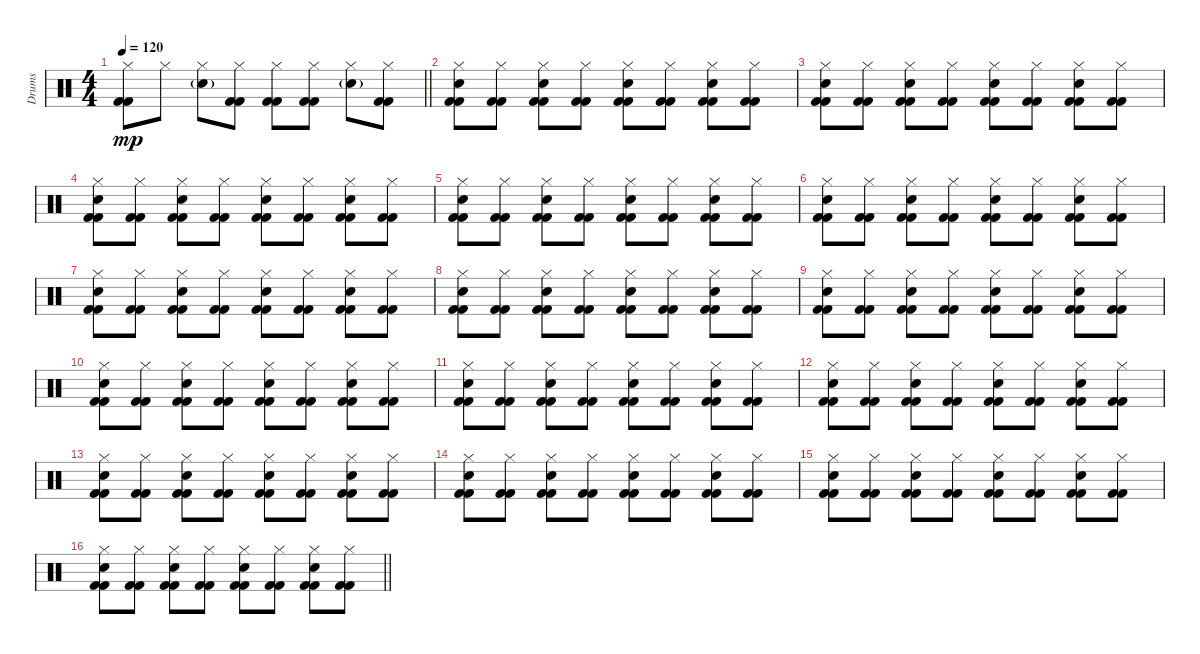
\track ("Drums" "Drums") {instrument percussion}
\staff {score}
\articulation defaults
\ts (4 4)
\tempo 120
\clef neutral
\barLineRight lightlight
\ks c
("Hi-Hat (closed)" "Kick (hit) 2" "Kick (hit) 2").8{dy mp} "Hi-Hat (closed)".8 ("Hi-Hat (closed)" "Snare (hit) 2"{g}).8 ("Hi-Hat (closed)" "Kick (hit) 2" "Kick (hit) 2").8 ("Hi-Hat (closed)" "Kick (hit) 2" "Kick (hit) 2").8 ("Hi-Hat (closed)" "Kick (hit) 2" "Kick (hit) 2").8 ("Hi-Hat (closed)" "Snare (hit) 2"{g}).8 ("Hi-Hat (closed)" "Kick (hit) 2" "Kick (hit) 2").8 |
("Hi-Hat (closed)" "Hand Clap (hit)" "Kick (hit) 2" "Kick (hit) 2").8 ("Hi-Hat (closed)" "Kick (hit) 2" "Kick (hit) 2").8 ("Hi-Hat (closed)" "Hand Clap (hit)" "Kick (hit) 2" "Kick (hit) 2").8 ("Hi-Hat (closed)" "Kick (hit) 2" "Kick (hit) 2").8 ("Hi-Hat (closed)" "Hand Clap (hit)" "Kick (hit) 2" "Kick (hit) 2").8 ("Hi-Hat (closed)" "Kick (hit) 2" "Kick (hit) 2").8 ("Hi-Hat (closed)" "Hand Clap (hit)" "Kick (hit) 2" "Kick (hit) 2").8 ("Hi-Hat (closed)" "Kick (hit) 2" "Kick (hit) 2").8 |
("Hi-Hat (closed)" "Hand Clap (hit)" "Kick (hit) 2" "Kick (hit) 2").8 ("Hi-Hat (closed)" "Kick (hit) 2" "Kick (hit) 2").8 ("Hi-Hat (closed)" "Hand Clap (hit)" "Kick (hit) 2" "Kick (hit) 2").8 ("Hi-Hat (closed)" "Kick (hit) 2" "Kick (hit) 2").8 ("Hi-Hat (closed)" "Hand Clap (hit)" "Kick (hit) 2" "Kick (hit) 2").8 ("Hi-Hat (closed)" "Kick (hit) 2" "Kick (hit) 2").8 ("Hi-Hat (closed)" "Hand Clap (hit)" "Kick (hit) 2" "Kick (hit) 2").8 ("Hi-Hat (closed)" "Kick (hit) 2" "Kick (hit) 2").8 |
("Hi-Hat (closed)" "Hand Clap (hit)" "Kick (hit) 2" "Kick (hit) 2").8 ("Hi-Hat (closed)" "Kick (hit) 2" "Kick (hit) 2").8 ("Hi-Hat (closed)" "Hand Clap (hit)" "Kick (hit) 2" "Kick (hit) 2").8 ("Hi-Hat (closed)" "Kick (hit) 2" "Kick (hit) 2").8 ("Hi-Hat (closed)" "Hand Clap (hit)" "Kick (hit) 2" "Kick (hit) 2").8 ("Hi-Hat (closed)" "Kick (hit) 2" "Kick (hit) 2").8 ("Hi-Hat (closed)" "Hand Clap (hit)" "Kick (hit) 2" "Kick (hit) 2").8 ("Hi-Hat (closed)" "Kick (hit) 2" "Kick (hit) 2").8 |
("Hi-Hat (closed)" "Hand Clap (hit)" "Kick (hit) 2" "Kick (hit) 2").8 ("Hi-Hat (closed)" "Kick (hit) 2" "Kick (hit) 2").8 ("Hi-Hat (closed)" "Hand Clap (hit)" "Kick (hit) 2" "Kick (hit) 2").8 ("Hi-Hat (closed)" "Kick (hit) 2" "Kick (hit) 2").8 ("Hi-Hat (closed)" "Hand Clap (hit)" "Kick (hit) 2" "Kick (hit) 2").8 ("Hi-Hat (closed)" "Kick (hit) 2" "Kick (hit) 2").8 ("Hi-Hat (closed)" "Hand Clap (hit)" "Kick (hit) 2" "Kick (hit) 2").8 ("Hi-Hat (closed)" "Kick (hit) 2" "Kick (hit) 2").8 |
("Hi-Hat (closed)" "Hand Clap (hit)" "Kick (hit) 2" "Kick (hit) 2").8 ("Hi-Hat (closed)" "Kick (hit) 2" "Kick (hit) 2").8 ("Hi-Hat (closed)" "Hand Clap (hit)" "Kick (hit) 2" "Kick (hit) 2").8 ("Hi-Hat (closed)" "Kick (hit) 2" "Kick (hit) 2").8 ("Hi-Hat (closed)" "Hand Clap (hit)" "Kick (hit) 2" "Kick (hit) 2").8 ("Hi-Hat (closed)" "Kick (hit) 2" "Kick (hit) 2").8 ("Hi-Hat (closed)" "Hand Clap (hit)" "Kick (hit) 2" "Kick (hit) 2").8 ("Hi-Hat (closed)" "Kick (hit) 2" "Kick (hit) 2").8 |
("Hi-Hat (closed)" "Hand Clap (hit)" "Kick (hit) 2" "Kick (hit) 2").8 ("Hi-Hat (closed)" "Kick (hit) 2" "Kick (hit) 2").8 ("Hi-Hat (closed)" "Hand Clap (hit)" "Kick (hit) 2" "Kick (hit) 2").8 ("Hi-Hat (closed)" "Kick (hit) 2" "Kick (hit) 2").8 ("Hi-Hat (closed)" "Hand Clap (hit)" "Kick (hit) 2" "Kick (hit) 2").8 ("Hi-Hat (closed)" "Kick (hit) 2" "Kick (hit) 2").8 ("Hi-Hat (closed)" "Hand Clap (hit)" "Kick (hit) 2" "Kick (hit) 2").8 ("Hi-Hat (closed)" "Kick (hit) 2" "Kick (hit) 2").8 |
("Hi-Hat (closed)" "Hand Clap (hit)" "Kick (hit) 2" "Kick (hit) 2").8 ("Hi-Hat (closed)" "Kick (hit) 2" "Kick (hit) 2").8 ("Hi-Hat (closed)" "Hand Clap (hit)" "Kick (hit) 2" "Kick (hit) 2").8 ("Hi-Hat (closed)" "Kick (hit) 2" "Kick (hit) 2").8 ("Hi-Hat (closed)" "Hand Clap (hit)" "Kick (hit) 2" "Kick (hit) 2").8 ("Hi-Hat (closed)" "Kick (hit) 2" "Kick (hit) 2").8 ("Hi-Hat (closed)" "Hand Clap (hit)" "Kick (hit) 2" "Kick (hit) 2").8 ("Hi-Hat (closed)" "Kick (hit) 2" "Kick (hit) 2").8 |
("Hi-Hat (closed)" "Hand Clap (hit)" "Kick (hit) 2" "Kick (hit) 2").8 ("Hi-Hat (closed)" "Kick (hit) 2" "Kick (hit) 2").8 ("Hi-Hat (closed)" "Hand Clap (hit)" "Kick (hit) 2" "Kick (hit) 2").8 ("Hi-Hat (closed)" "Kick (hit) 2" "Kick (hit) 2").8 ("Hi-Hat (closed)" "Hand Clap (hit)" "Kick (hit) 2" "Kick (hit) 2").8 ("Hi-Hat (closed)" "Kick (hit) 2" "Kick (hit) 2").8 ("Hi-Hat (closed)" "Hand Clap (hit)" "Kick (hit) 2" "Kick (hit) 2").8 ("Hi-Hat (closed)" "Kick (hit) 2" "Kick (hit) 2").8 |
("Hi-Hat (closed)" "Hand Clap (hit)" "Kick (hit) 2" "Kick (hit) 2").8 ("Hi-Hat (closed)" "Kick (hit) 2" "Kick (hit) 2").8 ("Hi-Hat (closed)" "Hand Clap (hit)" "Kick (hit) 2" "Kick (hit) 2").8 ("Hi-Hat (closed)" "Kick (hit) 2" "Kick (hit) 2").8 ("Hi-Hat (closed)" "Hand Clap (hit)" "Kick (hit) 2" "Kick (hit) 2").8 ("Hi-Hat (closed)" "Kick (hit) 2" "Kick (hit) 2").8 ("Hi-Hat (closed)" "Hand Clap (hit)" "Kick (hit) 2" "Kick (hit) 2").8 ("Hi-Hat (closed)" "Kick (hit) 2" "Kick (hit) 2").8 |
("Hi-Hat (closed)" "Hand Clap (hit)" "Kick (hit) 2" "Kick (hit) 2").8 ("Hi-Hat (closed)" "Kick (hit) 2" "Kick (hit) 2").8 ("Hi-Hat (closed)" "Hand Clap (hit)" "Kick (hit) 2" "Kick (hit) 2").8 ("Hi-Hat (closed)" "Kick (hit) 2" "Kick (hit) 2").8 ("Hi-Hat (closed)" "Hand Clap (hit)" "Kick (hit) 2" "Kick (hit) 2").8 ("Hi-Hat (closed)" "Kick (hit) 2" "Kick (hit) 2").8 ("Hi-Hat (closed)" "Hand Clap (hit)" "Kick (hit) 2" "Kick (hit) 2").8 ("Hi-Hat (closed)" "Kick (hit) 2" "Kick (hit) 2").8 |
("Hi-Hat (closed)" "Hand Clap (hit)" "Kick (hit) 2" "Kick (hit) 2").8 ("Hi-Hat (closed)" "Kick (hit) 2" "Kick (hit) 2").8 ("Hi-Hat (closed)" "Hand Clap (hit)" "Kick (hit) 2" "Kick (hit) 2").8 ("Hi-Hat (closed)" "Kick (hit) 2" "Kick (hit) 2").8 ("Hi-Hat (closed)" "Hand Clap (hit)" "Kick (hit) 2" "Kick (hit) 2").8 ("Hi-Hat (closed)" "Kick (hit) 2" "Kick (hit) 2").8 ("Hi-Hat (closed)" "Hand Clap (hit)" "Kick (hit) 2" "Kick (hit) 2").8 ("Hi-Hat (closed)" "Kick (hit) 2" "Kick (hit) 2").8 |
("Hi-Hat (closed)" "Hand Clap (hit)" "Kick (hit) 2" "Kick (hit) 2").8 ("Hi-Hat (closed)" "Kick (hit) 2" "Kick (hit) 2").8 ("Hi-Hat (closed)" "Hand Clap (hit)" "Kick (hit) 2" "Kick (hit) 2").8 ("Hi-Hat (closed)" "Kick (hit) 2" "Kick (hit) 2").8 ("Hi-Hat (closed)" "Hand Clap (hit)" "Kick (hit) 2" "Kick (hit) 2").8 ("Hi-Hat (closed)" "Kick (hit) 2" "Kick (hit) 2").8 ("Hi-Hat (closed)" "Hand Clap (hit)" "Kick (hit) 2" "Kick (hit) 2").8 ("Hi-Hat (closed)" "Kick (hit) 2" "Kick (hit) 2").8 |
("Hi-Hat (closed)" "Hand Clap (hit)" "Kick (hit) 2" "Kick (hit) 2").8 ("Hi-Hat (closed)" "Kick (hit) 2" "Kick (hit) 2").8 ("Hi-Hat (closed)" "Hand Clap (hit)" "Kick (hit) 2" "Kick (hit) 2").8 ("Hi-Hat (closed)" "Kick (hit) 2" "Kick (hit) 2").8 ("Hi-Hat (closed)" "Hand Clap (hit)" "Kick (hit) 2" "Kick (hit) 2").8 ("Hi-Hat (closed)" "Kick (hit) 2" "Kick (hit) 2").8 ("Hi-Hat (closed)" "Hand Clap (hit)" "Kick (hit) 2" "Kick (hit) 2").8 ("Hi-Hat (closed)" "Kick (hit) 2" "Kick (hit) 2").8 |
("Hi-Hat (closed)" "Hand Clap (hit)" "Kick (hit) 2" "Kick (hit) 2").8 ("Hi-Hat (closed)" "Kick (hit) 2" "Kick (hit) 2").8 ("Hi-Hat (closed)" "Hand Clap (hit)" "Kick (hit) 2" "Kick (hit) 2").8 ("Hi-Hat (closed)" "Kick (hit) 2" "Kick (hit) 2").8 ("Hi-Hat (closed)" "Hand Clap (hit)" "Kick (hit) 2" "Kick (hit) 2").8 ("Hi-Hat (closed)" "Kick (hit) 2" "Kick (hit) 2").8 ("Hi-Hat (closed)" "Hand Clap (hit)" "Kick (hit) 2" "Kick (hit) 2").8 ("Hi-Hat (closed)" "Kick (hit) 2" "Kick (hit) 2").8 |
\barLineRight lightlight
("Hi-Hat (closed)" "Hand Clap (hit)" "Kick (hit) 2" "Kick (hit) 2").8 ("Hi-Hat (closed)" "Kick (hit) 2" "Kick (hit) 2").8 ("Hi-Hat (closed)" "Hand Clap (hit)" "Kick (hit) 2" "Kick (hit) 2").8 ("Hi-Hat (closed)" "Kick (hit) 2" "Kick (hit) 2").8 ("Hi-Hat (closed)" "Hand Clap (hit)" "Kick (hit) 2" "Kick (hit) 2").8 ("Hi-Hat (closed)" "Kick (hit) 2" "Kick (hit) 2").8 ("Hi-Hat (closed)" "Hand Clap (hit)" "Kick (hit) 2" "Kick (hit) 2").8 ("Hi-Hat (closed)" "Kick (hit) 2" "Kick (hit) 2").8
